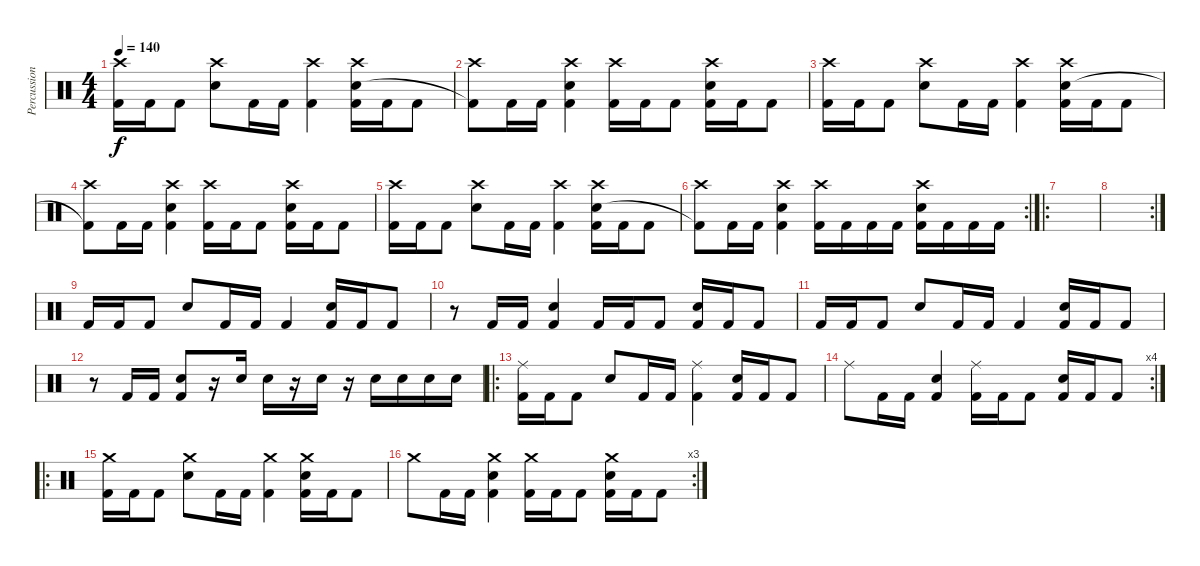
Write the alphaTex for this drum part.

\track ("Percussion" "Percussion") {instrument percussion}
\staff {score}
\articulation defaults
\ts (4 4)
\tempo 140
\clef neutral
\ks c
("Crash high (hit)" "Kick (hit) 2").16{dy f} "Kick (hit) 2".16 "Kick (hit) 2".8 ("Crash high (hit)" "Electric Snare (hit)").8 "Kick (hit) 2".16 "Kick (hit) 2".16 ("Crash high (hit)" "Kick (hit) 2").4 ("Crash high (hit)" "Electric Snare (hit)" "Kick (hit) 2").16 "Kick (hit) 2".16 "Kick (hit) 2".8 |
("Crash high (hit)" "Kick (hit) 2"{t}).8 "Kick (hit) 2".16 "Kick (hit) 2".16 ("Crash high (hit)" "Electric Snare (hit)" "Kick (hit) 2").4 ("Crash high (hit)" "Kick (hit) 2").16 "Kick (hit) 2".16 "Kick (hit) 2".8 ("Crash high (hit)" "Electric Snare (hit)" "Kick (hit) 2").16 "Kick (hit) 2".16 "Kick (hit) 2".8 |
("Crash high (hit)" "Kick (hit) 2").16 "Kick (hit) 2".16 "Kick (hit) 2".8 ("Crash high (hit)" "Electric Snare (hit)").8 "Kick (hit) 2".16 "Kick (hit) 2".16 ("Crash high (hit)" "Kick (hit) 2").4 ("Crash high (hit)" "Electric Snare (hit)" "Kick (hit) 2").16 "Kick (hit) 2".16 "Kick (hit) 2".8 |
("Crash high (hit)" "Kick (hit) 2"{t}).8 "Kick (hit) 2".16 "Kick (hit) 2".16 ("Crash high (hit)" "Electric Snare (hit)" "Kick (hit) 2").4 ("Crash high (hit)" "Kick (hit) 2").16 "Kick (hit) 2".16 "Kick (hit) 2".8 ("Crash high (hit)" "Electric Snare (hit)" "Kick (hit) 2").16 "Kick (hit) 2".16 "Kick (hit) 2".8 |
("Crash high (hit)" "Kick (hit) 2").16 "Kick (hit) 2".16 "Kick (hit) 2".8 ("Crash high (hit)" "Electric Snare (hit)").8 "Kick (hit) 2".16 "Kick (hit) 2".16 ("Crash high (hit)" "Kick (hit) 2").4 ("Crash high (hit)" "Electric Snare (hit)" "Kick (hit) 2").16 "Kick (hit) 2".16 "Kick (hit) 2".8 |
\rc 2
("Crash high (hit)" "Kick (hit) 2"{t}).8 "Kick (hit) 2".16 "Kick (hit) 2".16 ("Crash high (hit)" "Electric Snare (hit)" "Kick (hit) 2").4 ("Crash high (hit)" "Kick (hit) 2").16 "Kick (hit) 2".16 "Kick (hit) 2".16 "Kick (hit) 2".16 ("Crash high (hit)" "Electric Snare (hit)" "Kick (hit) 2").16 "Kick (hit) 2".16 "Kick (hit) 2".16 "Kick (hit) 2".16 |
\ro
|
\rc 2
|
"Kick (hit) 2".16 "Kick (hit) 2".16 "Kick (hit) 2".8 "Electric Snare (hit)".8 "Kick (hit) 2".16 "Kick (hit) 2".16 "Kick (hit) 2".4 ("Electric Snare (hit)" "Kick (hit) 2").16 "Kick (hit) 2".16 "Kick (hit) 2".8 |
r.8 "Kick (hit) 2".16 "Kick (hit) 2".16 ("Electric Snare (hit)" "Kick (hit) 2").4 "Kick (hit) 2".16 "Kick (hit) 2".16 "Kick (hit) 2".8 ("Electric Snare (hit)" "Kick (hit) 2").16 "Kick (hit) 2".16 "Kick (hit) 2".8 |
"Kick (hit) 2".16 "Kick (hit) 2".16 "Kick (hit) 2".8 "Electric Snare (hit)".8 "Kick (hit) 2".16 "Kick (hit) 2".16 "Kick (hit) 2".4 ("Electric Snare (hit)" "Kick (hit) 2").16 "Kick (hit) 2".16 "Kick (hit) 2".8 |
r.8 "Kick (hit) 2".16 "Kick (hit) 2".16 ("Electric Snare (hit)" "Kick (hit) 2").8 r.16 "Electric Snare (hit)".16 "Electric Snare (hit)".16 r.16 "Electric Snare (hit)".16 r.16 "Electric Snare (hit)".16 "Electric Snare (hit)".16 "Electric Snare (hit)".16 "Electric Snare (hit)".16 |
\ro
("Ride (middle)" "Kick (hit) 2").16 "Kick (hit) 2".16 "Kick (hit) 2".8 "Electric Snare (hit)".8 "Kick (hit) 2".16 "Kick (hit) 2".16 ("Ride (middle)" "Kick (hit) 2").4 ("Electric Snare (hit)" "Kick (hit) 2").16 "Kick (hit) 2".16 "Kick (hit) 2".8 |
\rc 4 "Ride (middle)".8 "Kick (hit) 2".16 "Kick (hit) 2".16
("Electric Snare (hit)" "Kick (hit) 2").4 ("Ride (middle)" "Kick (hit) 2").16 "Kick (hit) 2".16 "Kick (hit) 2".8 ("Electric Snare (hit)" "Kick (hit) 2").16 "Kick (hit) 2".16 "Kick (hit) 2".8 |
\ro
("Crash medium (hit)" "Kick (hit) 2").16 "Kick (hit) 2".16 "Kick (hit) 2".8 ("Crash medium (hit)" "Electric Snare (hit)").8 "Kick (hit) 2".16 "Kick (hit) 2".16 ("Crash medium (hit)" "Kick (hit) 2").4 ("Crash medium (hit)" "Electric Snare (hit)" "Kick (hit) 2").16 "Kick (hit) 2".16 "Kick (hit) 2".8 |
\rc 3 "Crash medium (hit)".8 "Kick (hit) 2".16 "Kick (hit) 2".16
("Crash medium (hit)" "Electric Snare (hit)" "Kick (hit) 2").4 ("Crash medium (hit)" "Kick (hit) 2").16 "Kick (hit) 2".16 "Kick (hit) 2".8 ("Crash medium (hit)" "Electric Snare (hit)" "Kick (hit) 2").16 "Kick (hit) 2".16 "Kick (hit) 2".8
